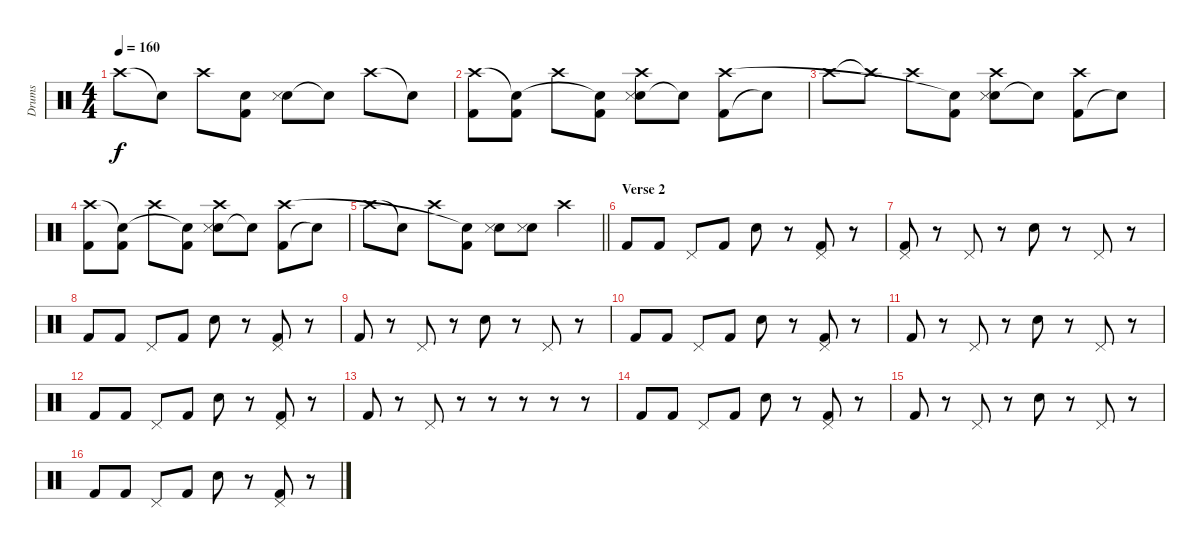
\track ("Drums" "Drums") {instrument percussion}
\staff {score}
\articulation defaults
\ts (4 4)
\tempo 160
\clef neutral
\ks c "Crash high (hit)".8{dy f} "Snare (hit)"{t}.8 "Crash high (hit)".8
("Kick (hit) 2" "Snare (hit)"{t}).8 ("Snare (hit) 2" "Snare (side stick) 3").8 "Snare (hit)"{t}.8 "Crash high (hit)".8 "Snare (hit)"{t}.8 |
("Kick (hit) 2" "Crash high (hit)").8 ("Kick (hit) 2" "Snare (hit)"{t}).8 "Crash high (hit)".8 ("Kick (hit) 2" "Snare (hit)"{t}).8 ("Snare (hit) 2" "Snare (side stick) 3" "Crash high (hit)").8 "Snare (hit)"{t}.8 ("Kick (hit) 2" "Crash high (hit)").8 "Snare (hit)"{t}.8 |
"Crash high (hit)".8 "Crash high (hit)"{t}.8 "Crash high (hit)".8 ("Kick (hit) 2" "Snare (hit)"{t}).8 ("Snare (hit) 2" "Snare (side stick) 3" "Crash high (hit)").8 "Snare (hit)"{t}.8 ("Kick (hit) 2" "Crash high (hit)").8 "Snare (hit)"{t}.8 |
("Kick (hit) 2" "Crash high (hit)").8 ("Kick (hit) 2" "Snare (hit)"{t}).8 "Crash high (hit)".8 ("Kick (hit) 2" "Snare (hit)"{t}).8 ("Snare (hit) 2" "Snare (side stick) 3" "Crash high (hit)").8 "Snare (hit)"{t}.8 ("Kick (hit) 2" "Crash high (hit)").8 "Snare (hit)"{t}.8 |
\barLineRight lightlight "Crash high (hit)".8 "Snare (hit)"{t}.8 "Crash high (hit)".8
("Kick (hit) 2" "Snare (hit)"{t}).8 ("Snare (hit) 2" "Snare (side stick) 3").8 ("Snare (hit) 2" "Snare (side stick) 3").8 "Crash high (hit)".4 |
\section ("" "Verse 2")
"Kick (hit) 2".8 "Kick (hit) 2".8 "Pedal Hi-Hat (hit)".8 "Kick (hit) 2".8 "Snare (hit) 2".8 r.8 ("Kick (hit) 2" "Pedal Hi-Hat (hit)").8 r.8 |
("Kick (hit) 2" "Pedal Hi-Hat (hit)").8 r.8 "Pedal Hi-Hat (hit)".8 r.8 "Snare (hit) 2".8 r.8 "Pedal Hi-Hat (hit)".8 r.8 |
"Kick (hit) 2".8 "Kick (hit) 2".8 "Pedal Hi-Hat (hit)".8 "Kick (hit) 2".8 "Snare (hit) 2".8 r.8 ("Kick (hit) 2" "Pedal Hi-Hat (hit)").8 r.8 |
"Kick (hit) 2".8 r.8 "Pedal Hi-Hat (hit)".8 r.8 "Snare (hit) 2".8 r.8 "Pedal Hi-Hat (hit)".8 r.8 |
"Kick (hit) 2".8 "Kick (hit) 2".8 "Pedal Hi-Hat (hit)".8 "Kick (hit) 2".8 "Snare (hit) 2".8 r.8 ("Kick (hit) 2" "Pedal Hi-Hat (hit)").8 r.8 |
"Kick (hit) 2".8 r.8 "Pedal Hi-Hat (hit)".8 r.8 "Snare (hit) 2".8 r.8 "Pedal Hi-Hat (hit)".8 r.8 |
"Kick (hit) 2".8 "Kick (hit) 2".8 "Pedal Hi-Hat (hit)".8 "Kick (hit) 2".8 "Snare (hit) 2".8 r.8 ("Kick (hit) 2" "Pedal Hi-Hat (hit)").8 r.8 |
"Kick (hit) 2".8 r.8 "Pedal Hi-Hat (hit)".8 r.8 r.8 r.8 r.8 r.8 |
"Kick (hit) 2".8 "Kick (hit) 2".8 "Pedal Hi-Hat (hit)".8 "Kick (hit) 2".8 "Snare (hit) 2".8 r.8 ("Kick (hit) 2" "Pedal Hi-Hat (hit)").8 r.8 |
"Kick (hit) 2".8 r.8 "Pedal Hi-Hat (hit)".8 r.8 "Snare (hit) 2".8 r.8 "Pedal Hi-Hat (hit)".8 r.8 |
"Kick (hit) 2".8 "Kick (hit) 2".8 "Pedal Hi-Hat (hit)".8 "Kick (hit) 2".8 "Snare (hit) 2".8 r.8 ("Kick (hit) 2" "Pedal Hi-Hat (hit)").8 r.8
